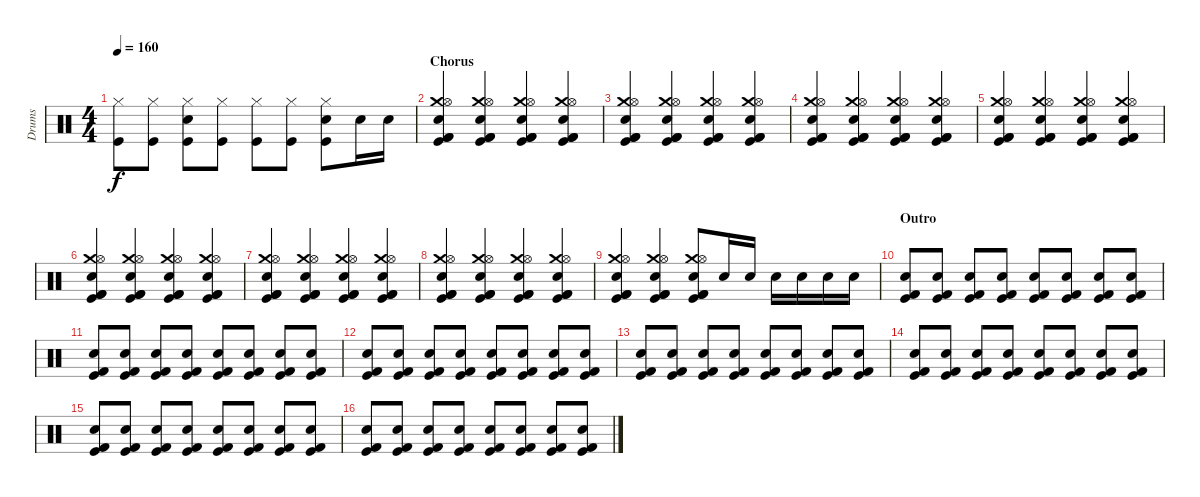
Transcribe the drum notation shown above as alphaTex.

\track ("Drums" "Drums") {instrument percussion}
\staff {score}
\articulation defaults
\ts (4 4)
\tempo 160
\clef neutral
\ks c
("Hi-Hat (closed)" "Kick (hit)").8{dy f} ("Hi-Hat (closed)" "Kick (hit)").8 ("Hi-Hat (closed)" "Electric Snare (hit)" "Kick (hit)").8 ("Hi-Hat (closed)" "Kick (hit)").8 ("Hi-Hat (closed)" "Kick (hit)").8 ("Hi-Hat (closed)" "Kick (hit)").8 ("Hi-Hat (closed)" "Electric Snare (hit)" "Kick (hit)").8 "Electric Snare (hit)".16 "Electric Snare (hit)".16 |
\section ("" "Chorus")
("Crash medium (hit)" "Hi-Hat (open)" "Electric Snare (hit)" "Kick (hit) 2" "Kick (hit)" "Kick (hit) 2").4 ("Crash medium (hit)" "Hi-Hat (open)" "Electric Snare (hit)" "Kick (hit) 2" "Kick (hit)" "Kick (hit) 2").4 ("Crash medium (hit)" "Hi-Hat (open)" "Electric Snare (hit)" "Kick (hit) 2" "Kick (hit)" "Kick (hit) 2").4 ("Crash medium (hit)" "Hi-Hat (open)" "Electric Snare (hit)" "Kick (hit) 2" "Kick (hit)" "Kick (hit) 2").4 |
("Crash medium (hit)" "Hi-Hat (open)" "Electric Snare (hit)" "Kick (hit) 2" "Kick (hit)" "Kick (hit) 2").4 ("Crash medium (hit)" "Hi-Hat (open)" "Electric Snare (hit)" "Kick (hit) 2" "Kick (hit)" "Kick (hit) 2").4 ("Crash medium (hit)" "Hi-Hat (open)" "Electric Snare (hit)" "Kick (hit) 2" "Kick (hit)" "Kick (hit) 2").4 ("Crash medium (hit)" "Hi-Hat (open)" "Electric Snare (hit)" "Kick (hit) 2" "Kick (hit)" "Kick (hit) 2").4 |
("Crash medium (hit)" "Hi-Hat (open)" "Electric Snare (hit)" "Kick (hit) 2" "Kick (hit)" "Kick (hit) 2").4 ("Crash medium (hit)" "Hi-Hat (open)" "Electric Snare (hit)" "Kick (hit) 2" "Kick (hit)" "Kick (hit) 2").4 ("Crash medium (hit)" "Hi-Hat (open)" "Electric Snare (hit)" "Kick (hit) 2" "Kick (hit)" "Kick (hit) 2").4 ("Crash medium (hit)" "Hi-Hat (open)" "Electric Snare (hit)" "Kick (hit) 2" "Kick (hit)" "Kick (hit) 2").4 |
("Crash medium (hit)" "Hi-Hat (open)" "Electric Snare (hit)" "Kick (hit) 2" "Kick (hit)" "Kick (hit) 2").4 ("Crash medium (hit)" "Hi-Hat (open)" "Electric Snare (hit)" "Kick (hit) 2" "Kick (hit)" "Kick (hit) 2").4 ("Crash medium (hit)" "Hi-Hat (open)" "Electric Snare (hit)" "Kick (hit) 2" "Kick (hit)" "Kick (hit) 2").4 ("Crash medium (hit)" "Hi-Hat (open)" "Electric Snare (hit)" "Kick (hit) 2" "Kick (hit)" "Kick (hit) 2").4 |
("Crash medium (hit)" "Hi-Hat (open)" "Electric Snare (hit)" "Kick (hit) 2" "Kick (hit)" "Kick (hit) 2").4 ("Crash medium (hit)" "Hi-Hat (open)" "Electric Snare (hit)" "Kick (hit) 2" "Kick (hit)" "Kick (hit) 2").4 ("Crash medium (hit)" "Hi-Hat (open)" "Electric Snare (hit)" "Kick (hit) 2" "Kick (hit)" "Kick (hit) 2").4 ("Crash medium (hit)" "Hi-Hat (open)" "Electric Snare (hit)" "Kick (hit) 2" "Kick (hit)" "Kick (hit) 2").4 |
("Crash medium (hit)" "Hi-Hat (open)" "Electric Snare (hit)" "Kick (hit) 2" "Kick (hit)" "Kick (hit) 2").4 ("Crash medium (hit)" "Hi-Hat (open)" "Electric Snare (hit)" "Kick (hit) 2" "Kick (hit)" "Kick (hit) 2").4 ("Crash medium (hit)" "Hi-Hat (open)" "Electric Snare (hit)" "Kick (hit) 2" "Kick (hit)" "Kick (hit) 2").4 ("Crash medium (hit)" "Hi-Hat (open)" "Electric Snare (hit)" "Kick (hit) 2" "Kick (hit)" "Kick (hit) 2").4 |
("Crash medium (hit)" "Hi-Hat (open)" "Electric Snare (hit)" "Kick (hit) 2" "Kick (hit)" "Kick (hit) 2").4 ("Crash medium (hit)" "Hi-Hat (open)" "Electric Snare (hit)" "Kick (hit) 2" "Kick (hit)" "Kick (hit) 2").4 ("Crash medium (hit)" "Hi-Hat (open)" "Electric Snare (hit)" "Kick (hit) 2" "Kick (hit)" "Kick (hit) 2").4 ("Crash medium (hit)" "Hi-Hat (open)" "Electric Snare (hit)" "Kick (hit) 2" "Kick (hit)" "Kick (hit) 2").4 |
("Crash medium (hit)" "Hi-Hat (open)" "Electric Snare (hit)" "Kick (hit) 2" "Kick (hit)" "Kick (hit) 2").4 ("Crash medium (hit)" "Hi-Hat (open)" "Electric Snare (hit)" "Kick (hit) 2" "Kick (hit)" "Kick (hit) 2").4 ("Crash medium (hit)" "Hi-Hat (open)" "Electric Snare (hit)" "Kick (hit) 2" "Kick (hit)" "Kick (hit) 2").8 "Electric Snare (hit)".16 "Electric Snare (hit)".16 "Electric Snare (hit)".16 "Electric Snare (hit)".16 "Electric Snare (hit)".16 "Electric Snare (hit)".16 |
\section ("" "Outro")
("Electric Snare (hit)" "Kick (hit) 2" "Kick (hit)").8 ("Electric Snare (hit)" "Kick (hit) 2" "Kick (hit)").8 ("Electric Snare (hit)" "Kick (hit) 2" "Kick (hit)").8 ("Electric Snare (hit)" "Kick (hit) 2" "Kick (hit)").8 ("Electric Snare (hit)" "Kick (hit) 2" "Kick (hit)").8 ("Electric Snare (hit)" "Kick (hit) 2" "Kick (hit)").8 ("Electric Snare (hit)" "Kick (hit) 2" "Kick (hit)").8 ("Electric Snare (hit)" "Kick (hit) 2" "Kick (hit)").8 |
("Electric Snare (hit)" "Kick (hit) 2" "Kick (hit)").8 ("Electric Snare (hit)" "Kick (hit) 2" "Kick (hit)").8 ("Electric Snare (hit)" "Kick (hit) 2" "Kick (hit)").8 ("Electric Snare (hit)" "Kick (hit) 2" "Kick (hit)").8 ("Electric Snare (hit)" "Kick (hit) 2" "Kick (hit)").8 ("Electric Snare (hit)" "Kick (hit) 2" "Kick (hit)").8 ("Electric Snare (hit)" "Kick (hit) 2" "Kick (hit)").8 ("Electric Snare (hit)" "Kick (hit) 2" "Kick (hit)").8 |
("Electric Snare (hit)" "Kick (hit) 2" "Kick (hit)").8 ("Electric Snare (hit)" "Kick (hit) 2" "Kick (hit)").8 ("Electric Snare (hit)" "Kick (hit) 2" "Kick (hit)").8 ("Electric Snare (hit)" "Kick (hit) 2" "Kick (hit)").8 ("Electric Snare (hit)" "Kick (hit) 2" "Kick (hit)").8 ("Electric Snare (hit)" "Kick (hit) 2" "Kick (hit)").8 ("Electric Snare (hit)" "Kick (hit) 2" "Kick (hit)").8 ("Electric Snare (hit)" "Kick (hit) 2" "Kick (hit)").8 |
("Electric Snare (hit)" "Kick (hit) 2" "Kick (hit)").8 ("Electric Snare (hit)" "Kick (hit) 2" "Kick (hit)").8 ("Electric Snare (hit)" "Kick (hit) 2" "Kick (hit)").8 ("Electric Snare (hit)" "Kick (hit) 2" "Kick (hit)").8 ("Electric Snare (hit)" "Kick (hit) 2" "Kick (hit)").8 ("Electric Snare (hit)" "Kick (hit) 2" "Kick (hit)").8 ("Electric Snare (hit)" "Kick (hit) 2" "Kick (hit)").8 ("Electric Snare (hit)" "Kick (hit) 2" "Kick (hit)").8 |
("Electric Snare (hit)" "Kick (hit) 2" "Kick (hit)").8 ("Electric Snare (hit)" "Kick (hit) 2" "Kick (hit)").8 ("Electric Snare (hit)" "Kick (hit) 2" "Kick (hit)").8 ("Electric Snare (hit)" "Kick (hit) 2" "Kick (hit)").8 ("Electric Snare (hit)" "Kick (hit) 2" "Kick (hit)").8 ("Electric Snare (hit)" "Kick (hit) 2" "Kick (hit)").8 ("Electric Snare (hit)" "Kick (hit) 2" "Kick (hit)").8 ("Electric Snare (hit)" "Kick (hit) 2" "Kick (hit)").8 |
("Electric Snare (hit)" "Kick (hit) 2" "Kick (hit)").8 ("Electric Snare (hit)" "Kick (hit) 2" "Kick (hit)").8 ("Electric Snare (hit)" "Kick (hit) 2" "Kick (hit)").8 ("Electric Snare (hit)" "Kick (hit) 2" "Kick (hit)").8 ("Electric Snare (hit)" "Kick (hit) 2" "Kick (hit)").8 ("Electric Snare (hit)" "Kick (hit) 2" "Kick (hit)").8 ("Electric Snare (hit)" "Kick (hit) 2" "Kick (hit)").8 ("Electric Snare (hit)" "Kick (hit) 2" "Kick (hit)").8 |
("Electric Snare (hit)" "Kick (hit) 2" "Kick (hit)").8 ("Electric Snare (hit)" "Kick (hit) 2" "Kick (hit)").8 ("Electric Snare (hit)" "Kick (hit) 2" "Kick (hit)").8 ("Electric Snare (hit)" "Kick (hit) 2" "Kick (hit)").8 ("Electric Snare (hit)" "Kick (hit) 2" "Kick (hit)").8 ("Electric Snare (hit)" "Kick (hit) 2" "Kick (hit)").8 ("Electric Snare (hit)" "Kick (hit) 2" "Kick (hit)").8 ("Electric Snare (hit)" "Kick (hit) 2" "Kick (hit)").8
